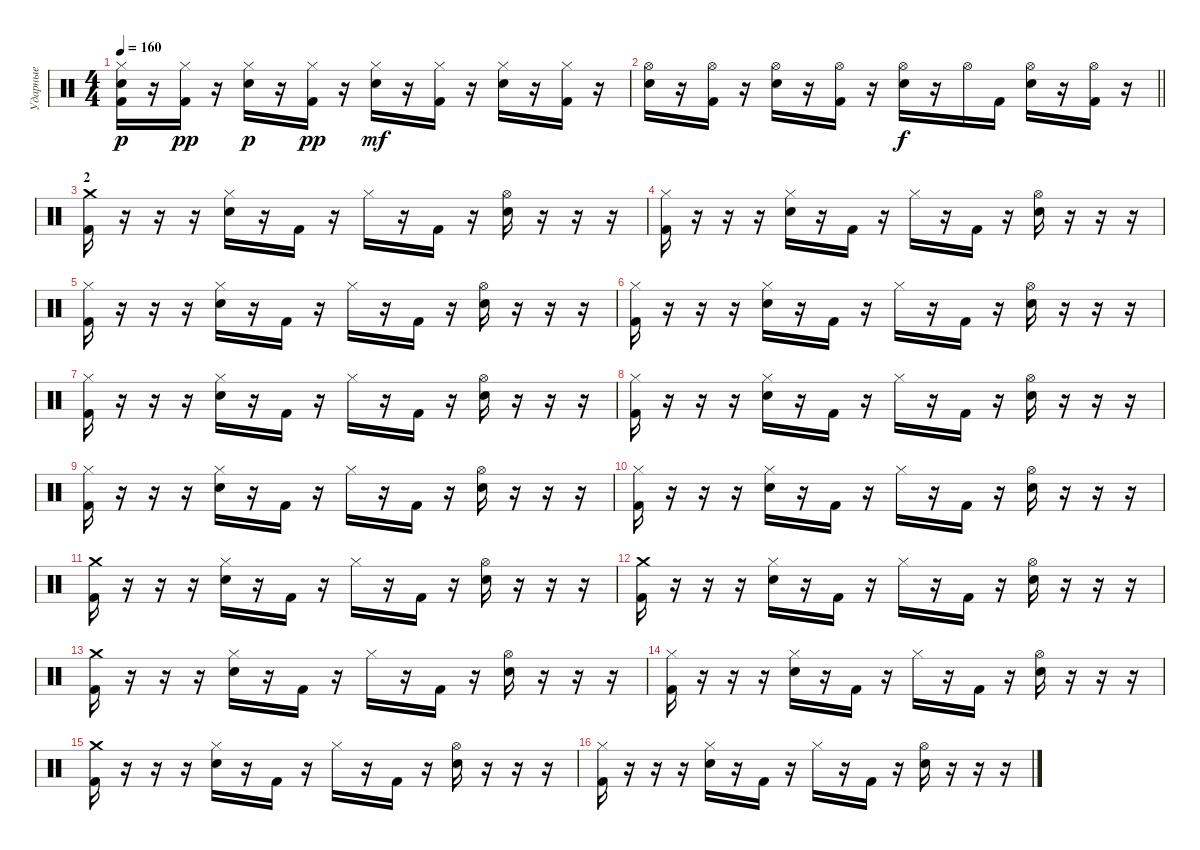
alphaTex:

\track ("Ударные" "Ударные") {instrument percussion}
\staff {score}
\articulation defaults
\ts (4 4)
\tempo 160
\clef neutral
\ks c
("Hi-Hat (closed)" "Electric Snare (hit)" "Kick (hit) 2").16{dy p} r.16 ("Hi-Hat (closed)" "Kick (hit) 2").16{dy pp} r.16 ("Hi-Hat (closed)" "Electric Snare (hit)").16{dy p} r.16 ("Hi-Hat (closed)" "Kick (hit) 2").16{dy pp} r.16 ("Hi-Hat (closed)" "Electric Snare (hit)").16{dy mf} r.16 ("Hi-Hat (closed)" "Kick (hit) 2").16 r.16 ("Hi-Hat (closed)" "Electric Snare (hit)").16 r.16 ("Hi-Hat (closed)" "Kick (hit) 2").16 r.16 |
\barLineRight lightlight
("Hi-Hat (open)" "Electric Snare (hit)").16 r.16 ("Hi-Hat (open)" "Kick (hit) 2").16 r.16 ("Hi-Hat (open)" "Electric Snare (hit)").16 r.16 ("Hi-Hat (open)" "Kick (hit) 2").16 r.16 ("Hi-Hat (open)" "Electric Snare (hit)").16{dy f} r.16 "Hi-Hat (open)".16 "Kick (hit) 2".16 ("Hi-Hat (open)" "Electric Snare (hit)").16 r.16 ("Hi-Hat (open)" "Kick (hit) 2").16 r.16 |
\section ("" "2")
("Crash medium (hit)" "Kick (hit) 2").16 r.16 r.16 r.16 ("Hi-Hat (closed)" "Electric Snare (hit)").16 r.16 "Kick (hit) 2".16 r.16 "Hi-Hat (closed)".16 r.16 "Kick (hit) 2".16 r.16 ("Hi-Hat (open)" "Electric Snare (hit)").16 r.16 r.16 r.16 |
("Hi-Hat (closed)" "Kick (hit) 2").16 r.16 r.16 r.16 ("Hi-Hat (closed)" "Electric Snare (hit)").16 r.16 "Kick (hit) 2".16 r.16 "Hi-Hat (closed)".16 r.16 "Kick (hit) 2".16 r.16 ("Hi-Hat (open)" "Electric Snare (hit)").16 r.16 r.16 r.16 |
("Hi-Hat (closed)" "Kick (hit) 2").16 r.16 r.16 r.16 ("Hi-Hat (closed)" "Electric Snare (hit)").16 r.16 "Kick (hit) 2".16 r.16 "Hi-Hat (closed)".16 r.16 "Kick (hit) 2".16 r.16 ("Hi-Hat (open)" "Electric Snare (hit)").16 r.16 r.16 r.16 |
("Hi-Hat (closed)" "Kick (hit) 2").16 r.16 r.16 r.16 ("Hi-Hat (closed)" "Electric Snare (hit)").16 r.16 "Kick (hit) 2".16 r.16 "Hi-Hat (closed)".16 r.16 "Kick (hit) 2".16 r.16 ("Hi-Hat (open)" "Electric Snare (hit)").16 r.16 r.16 r.16 |
("Hi-Hat (closed)" "Kick (hit) 2").16 r.16 r.16 r.16 ("Hi-Hat (closed)" "Electric Snare (hit)").16 r.16 "Kick (hit) 2".16 r.16 "Hi-Hat (closed)".16 r.16 "Kick (hit) 2".16 r.16 ("Hi-Hat (open)" "Electric Snare (hit)").16 r.16 r.16 r.16 |
("Hi-Hat (closed)" "Kick (hit) 2").16 r.16 r.16 r.16 ("Hi-Hat (closed)" "Electric Snare (hit)").16 r.16 "Kick (hit) 2".16 r.16 "Hi-Hat (closed)".16 r.16 "Kick (hit) 2".16 r.16 ("Hi-Hat (open)" "Electric Snare (hit)").16 r.16 r.16 r.16 |
("Hi-Hat (closed)" "Kick (hit) 2").16 r.16 r.16 r.16 ("Hi-Hat (closed)" "Electric Snare (hit)").16 r.16 "Kick (hit) 2".16 r.16 "Hi-Hat (closed)".16 r.16 "Kick (hit) 2".16 r.16 ("Hi-Hat (open)" "Electric Snare (hit)").16 r.16 r.16 r.16 |
("Hi-Hat (closed)" "Kick (hit) 2").16 r.16 r.16 r.16 ("Hi-Hat (closed)" "Electric Snare (hit)").16 r.16 "Kick (hit) 2".16 r.16 "Hi-Hat (closed)".16 r.16 "Kick (hit) 2".16 r.16 ("Hi-Hat (open)" "Electric Snare (hit)").16 r.16 r.16 r.16 |
("Crash medium (hit)" "Kick (hit) 2").16 r.16 r.16 r.16 ("Hi-Hat (closed)" "Electric Snare (hit)").16 r.16 "Kick (hit) 2".16 r.16 "Hi-Hat (closed)".16 r.16 "Kick (hit) 2".16 r.16 ("Hi-Hat (open)" "Electric Snare (hit)").16 r.16 r.16 r.16 |
("Crash medium (hit)" "Kick (hit) 2").16 r.16 r.16 r.16 ("Hi-Hat (closed)" "Electric Snare (hit)").16 r.16 "Kick (hit) 2".16 r.16 "Hi-Hat (closed)".16 r.16 "Kick (hit) 2".16 r.16 ("Hi-Hat (open)" "Electric Snare (hit)").16 r.16 r.16 r.16 |
("Crash medium (hit)" "Kick (hit) 2").16 r.16 r.16 r.16 ("Hi-Hat (closed)" "Electric Snare (hit)").16 r.16 "Kick (hit) 2".16 r.16 "Hi-Hat (closed)".16 r.16 "Kick (hit) 2".16 r.16 ("Hi-Hat (open)" "Electric Snare (hit)").16 r.16 r.16 r.16 |
("Hi-Hat (closed)" "Kick (hit) 2").16 r.16 r.16 r.16 ("Hi-Hat (closed)" "Electric Snare (hit)").16 r.16 "Kick (hit) 2".16 r.16 "Hi-Hat (closed)".16 r.16 "Kick (hit) 2".16 r.16 ("Hi-Hat (open)" "Electric Snare (hit)").16 r.16 r.16 r.16 |
("Crash medium (hit)" "Kick (hit) 2").16 r.16 r.16 r.16 ("Hi-Hat (closed)" "Electric Snare (hit)").16 r.16 "Kick (hit) 2".16 r.16 "Hi-Hat (closed)".16 r.16 "Kick (hit) 2".16 r.16 ("Hi-Hat (open)" "Electric Snare (hit)").16 r.16 r.16 r.16 |
("Hi-Hat (closed)" "Kick (hit) 2").16 r.16 r.16 r.16 ("Hi-Hat (closed)" "Electric Snare (hit)").16 r.16 "Kick (hit) 2".16 r.16 "Hi-Hat (closed)".16 r.16 "Kick (hit) 2".16 r.16 ("Hi-Hat (open)" "Electric Snare (hit)").16 r.16 r.16 r.16
